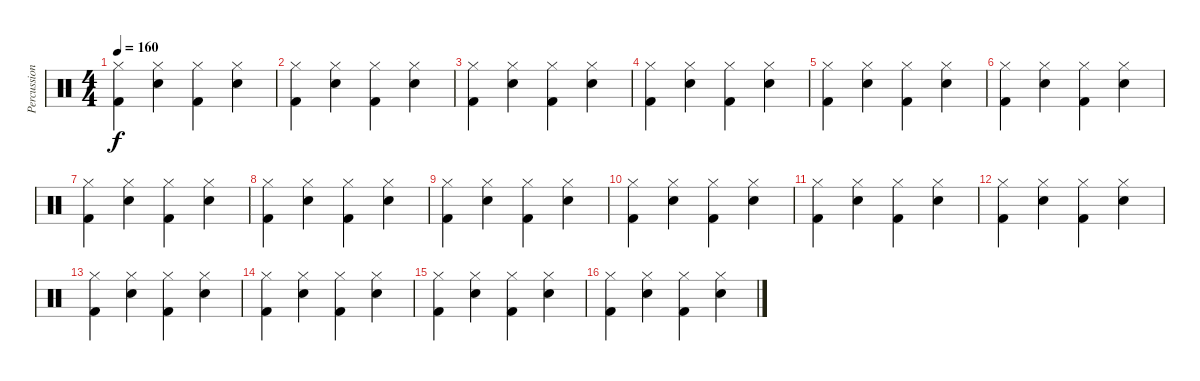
\track ("Percussions" "Percussion") {instrument percussion}
\staff {score}
\articulation defaults
\ts (4 4)
\tempo 160
\clef neutral
\ks c
("Hi-Hat (closed)" "Kick (hit) 2").4{dy f} ("Hi-Hat (closed)" "Snare (hit) 2").4 ("Hi-Hat (closed)" "Kick (hit) 2").4 ("Hi-Hat (closed)" "Snare (hit) 2").4 |
("Hi-Hat (closed)" "Kick (hit) 2").4 ("Hi-Hat (closed)" "Snare (hit) 2").4 ("Hi-Hat (closed)" "Kick (hit) 2").4 ("Hi-Hat (closed)" "Snare (hit) 2").4 |
("Hi-Hat (closed)" "Kick (hit) 2").4 ("Hi-Hat (closed)" "Snare (hit) 2").4 ("Hi-Hat (closed)" "Kick (hit) 2").4 ("Hi-Hat (closed)" "Snare (hit) 2").4 |
("Hi-Hat (closed)" "Kick (hit) 2").4 ("Hi-Hat (closed)" "Snare (hit) 2").4 ("Hi-Hat (closed)" "Kick (hit) 2").4 ("Hi-Hat (closed)" "Snare (hit) 2").4 |
("Hi-Hat (closed)" "Kick (hit) 2").4 ("Hi-Hat (closed)" "Snare (hit) 2").4 ("Hi-Hat (closed)" "Kick (hit) 2").4 ("Hi-Hat (closed)" "Snare (hit) 2").4 |
("Hi-Hat (closed)" "Kick (hit) 2").4 ("Hi-Hat (closed)" "Snare (hit) 2").4 ("Hi-Hat (closed)" "Kick (hit) 2").4 ("Hi-Hat (closed)" "Snare (hit) 2").4 |
("Hi-Hat (closed)" "Kick (hit) 2").4 ("Hi-Hat (closed)" "Snare (hit) 2").4 ("Hi-Hat (closed)" "Kick (hit) 2").4 ("Hi-Hat (closed)" "Snare (hit) 2").4 |
("Hi-Hat (closed)" "Kick (hit) 2").4 ("Hi-Hat (closed)" "Snare (hit) 2").4 ("Hi-Hat (closed)" "Kick (hit) 2").4 ("Hi-Hat (closed)" "Snare (hit) 2").4 |
("Hi-Hat (closed)" "Kick (hit) 2").4 ("Hi-Hat (closed)" "Snare (hit) 2").4 ("Hi-Hat (closed)" "Kick (hit) 2").4 ("Hi-Hat (closed)" "Snare (hit) 2").4 |
("Hi-Hat (closed)" "Kick (hit) 2").4 ("Hi-Hat (closed)" "Snare (hit) 2").4 ("Hi-Hat (closed)" "Kick (hit) 2").4 ("Hi-Hat (closed)" "Snare (hit) 2").4 |
("Hi-Hat (closed)" "Kick (hit) 2").4 ("Hi-Hat (closed)" "Snare (hit) 2").4 ("Hi-Hat (closed)" "Kick (hit) 2").4 ("Hi-Hat (closed)" "Snare (hit) 2").4 |
("Hi-Hat (closed)" "Kick (hit) 2").4 ("Hi-Hat (closed)" "Snare (hit) 2").4 ("Hi-Hat (closed)" "Kick (hit) 2").4 ("Hi-Hat (closed)" "Snare (hit) 2").4 |
("Hi-Hat (closed)" "Kick (hit) 2").4 ("Hi-Hat (closed)" "Snare (hit) 2").4 ("Hi-Hat (closed)" "Kick (hit) 2").4 ("Hi-Hat (closed)" "Snare (hit) 2").4 |
("Hi-Hat (closed)" "Kick (hit) 2").4 ("Hi-Hat (closed)" "Snare (hit) 2").4 ("Hi-Hat (closed)" "Kick (hit) 2").4 ("Hi-Hat (closed)" "Snare (hit) 2").4 |
("Hi-Hat (closed)" "Kick (hit) 2").4 ("Hi-Hat (closed)" "Snare (hit) 2").4 ("Hi-Hat (closed)" "Kick (hit) 2").4 ("Hi-Hat (closed)" "Snare (hit) 2").4 |
("Hi-Hat (closed)" "Kick (hit) 2").4 ("Hi-Hat (closed)" "Snare (hit) 2").4 ("Hi-Hat (closed)" "Kick (hit) 2").4 ("Hi-Hat (closed)" "Snare (hit) 2").4
